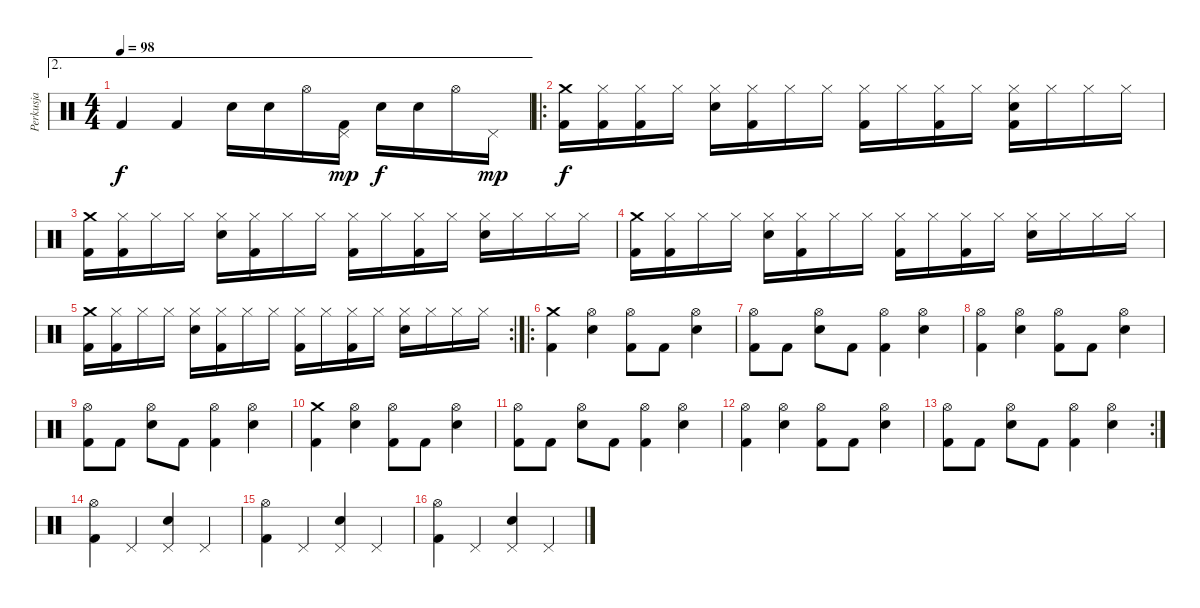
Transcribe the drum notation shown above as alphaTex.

\track ("Perkusja" "Perkusja") {instrument percussion}
\staff {score}
\articulation defaults
\ae 2
\ts (4 4)
\tempo 98
\clef neutral
\ks c "Kick (hit) 2".4{dy f} "Kick (hit) 2".4 "Snare (hit) 2".16 "Snare (hit) 2".16 "Hi-Hat (open)".16
("Pedal Hi-Hat (hit)" "Kick (hit) 2").16{dy mp} "Snare (hit) 2".16{dy f} "Snare (hit) 2".16 "Hi-Hat (open)".16 "Pedal Hi-Hat (hit)".16{dy mp} |
\ro
("Crash medium (hit)" "Kick (hit) 2").16{dy f} ("Hi-Hat (closed)" "Kick (hit) 2").16 ("Hi-Hat (closed)" "Kick (hit) 2").16 "Hi-Hat (closed)".16 ("Hi-Hat (closed)" "Snare (hit) 2").16 ("Hi-Hat (closed)" "Kick (hit) 2").16 "Hi-Hat (closed)".16 "Hi-Hat (closed)".16 ("Hi-Hat (closed)" "Kick (hit) 2").16 "Hi-Hat (closed)".16 ("Hi-Hat (closed)" "Kick (hit) 2").16 "Hi-Hat (closed)".16 ("Hi-Hat (closed)" "Snare (hit) 2" "Kick (hit) 2").16 "Hi-Hat (closed)".16 "Hi-Hat (closed)".16 "Hi-Hat (closed)".16 |
("Crash medium (hit)" "Kick (hit) 2").16 ("Hi-Hat (closed)" "Kick (hit) 2").16 "Hi-Hat (closed)".16 "Hi-Hat (closed)".16 ("Hi-Hat (closed)" "Snare (hit) 2").16 ("Hi-Hat (closed)" "Kick (hit) 2").16 "Hi-Hat (closed)".16 "Hi-Hat (closed)".16 ("Hi-Hat (closed)" "Kick (hit) 2").16 "Hi-Hat (closed)".16 ("Hi-Hat (closed)" "Kick (hit) 2").16 "Hi-Hat (closed)".16 ("Hi-Hat (closed)" "Snare (hit) 2").16 "Hi-Hat (closed)".16 "Hi-Hat (closed)".16 "Hi-Hat (closed)".16 |
("Crash medium (hit)" "Kick (hit) 2").16 ("Hi-Hat (closed)" "Kick (hit) 2").16 "Hi-Hat (closed)".16 "Hi-Hat (closed)".16 ("Hi-Hat (closed)" "Snare (hit) 2").16 ("Hi-Hat (closed)" "Kick (hit) 2").16 "Hi-Hat (closed)".16 "Hi-Hat (closed)".16 ("Hi-Hat (closed)" "Kick (hit) 2").16 "Hi-Hat (closed)".16 ("Hi-Hat (closed)" "Kick (hit) 2").16 "Hi-Hat (closed)".16 ("Hi-Hat (closed)" "Snare (hit) 2").16 "Hi-Hat (closed)".16 "Hi-Hat (closed)".16 "Hi-Hat (closed)".16 |
\rc 2
("Crash medium (hit)" "Kick (hit) 2").16 ("Hi-Hat (closed)" "Kick (hit) 2").16 "Hi-Hat (closed)".16 "Hi-Hat (closed)".16 ("Hi-Hat (closed)" "Snare (hit) 2").16 ("Hi-Hat (closed)" "Kick (hit) 2").16 "Hi-Hat (closed)".16 "Hi-Hat (closed)".16 ("Hi-Hat (closed)" "Kick (hit) 2").16 "Hi-Hat (closed)".16 ("Hi-Hat (closed)" "Kick (hit) 2").16 "Hi-Hat (closed)".16 ("Hi-Hat (closed)" "Snare (hit) 2").16 "Hi-Hat (closed)".16 "Hi-Hat (closed)".16 "Hi-Hat (closed)".16 |
\ro
("Crash medium (hit)" "Kick (hit) 2").4 ("Hi-Hat (open)" "Snare (hit) 2").4 ("Hi-Hat (open)" "Kick (hit) 2").8 "Kick (hit) 2".8 ("Hi-Hat (open)" "Snare (hit) 2").4 |
("Hi-Hat (open)" "Kick (hit) 2").8 "Kick (hit) 2".8 ("Hi-Hat (open)" "Snare (hit) 2").8 "Kick (hit) 2".8 ("Hi-Hat (open)" "Kick (hit) 2").4 ("Hi-Hat (open)" "Snare (hit) 2").4 |
("Hi-Hat (open)" "Kick (hit) 2").4 ("Hi-Hat (open)" "Snare (hit) 2").4 ("Hi-Hat (open)" "Kick (hit) 2").8 "Kick (hit) 2".8 ("Hi-Hat (open)" "Snare (hit) 2").4 |
("Hi-Hat (open)" "Kick (hit) 2").8 "Kick (hit) 2".8 ("Hi-Hat (open)" "Snare (hit) 2").8 "Kick (hit) 2".8 ("Hi-Hat (open)" "Kick (hit) 2").4 ("Hi-Hat (open)" "Snare (hit) 2").4 |
("Crash medium (hit)" "Kick (hit) 2").4 ("Hi-Hat (open)" "Snare (hit) 2").4 ("Hi-Hat (open)" "Kick (hit) 2").8 "Kick (hit) 2".8 ("Hi-Hat (open)" "Snare (hit) 2").4 |
("Hi-Hat (open)" "Kick (hit) 2").8 "Kick (hit) 2".8 ("Hi-Hat (open)" "Snare (hit) 2").8 "Kick (hit) 2".8 ("Hi-Hat (open)" "Kick (hit) 2").4 ("Hi-Hat (open)" "Snare (hit) 2").4 |
("Hi-Hat (open)" "Kick (hit) 2").4 ("Hi-Hat (open)" "Snare (hit) 2").4 ("Hi-Hat (open)" "Kick (hit) 2").8 "Kick (hit) 2".8 ("Hi-Hat (open)" "Snare (hit) 2").4 |
\rc 2
("Hi-Hat (open)" "Kick (hit) 2").8 "Kick (hit) 2".8 ("Hi-Hat (open)" "Snare (hit) 2").8 "Kick (hit) 2".8 ("Hi-Hat (open)" "Kick (hit) 2").4 ("Hi-Hat (open)" "Snare (hit) 2").4 |
("Hi-Hat (open)" "Kick (hit) 2").4 "Pedal Hi-Hat (hit)".4 ("Pedal Hi-Hat (hit)" "Snare (hit) 2").4 "Pedal Hi-Hat (hit)".4 |
("Hi-Hat (open)" "Kick (hit) 2").4 "Pedal Hi-Hat (hit)".4 ("Pedal Hi-Hat (hit)" "Snare (hit) 2").4 "Pedal Hi-Hat (hit)".4 |
("Hi-Hat (open)" "Kick (hit) 2").4 "Pedal Hi-Hat (hit)".4 ("Pedal Hi-Hat (hit)" "Snare (hit) 2").4 "Pedal Hi-Hat (hit)".4
